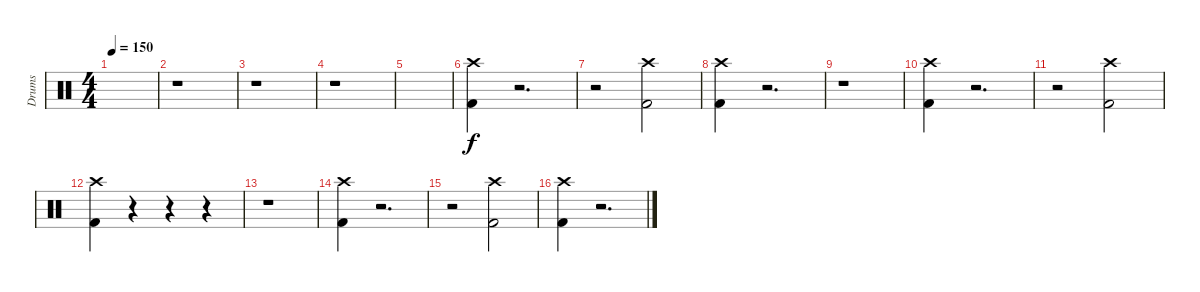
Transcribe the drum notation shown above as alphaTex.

\track ("Drums" "Drums") {instrument percussion}
\staff {score}
\articulation defaults
\ts (4 4)
\tempo 150
\clef neutral
\ks c
|
r.1 |
r.1 |
r.1 |
|
("Kick (hit) 2" "Crash high (hit)").4{volume 15} r.2{d} |
r.2 ("Kick (hit) 2" "Crash high (hit)").2 |
("Kick (hit) 2" "Crash high (hit)").4 r.2{d} |
r.1 |
("Kick (hit) 2" "Crash high (hit)").4 r.2{d} |
r.2 ("Kick (hit) 2" "Crash high (hit)").2 |
("Kick (hit) 2" "Crash high (hit)").4 r.4 r.4 r.4 |
r.1 |
("Kick (hit) 2" "Crash high (hit)").4 r.2{d} |
r.2 ("Kick (hit) 2" "Crash high (hit)").2 |
("Kick (hit) 2" "Crash high (hit)").4 r.2{d}
